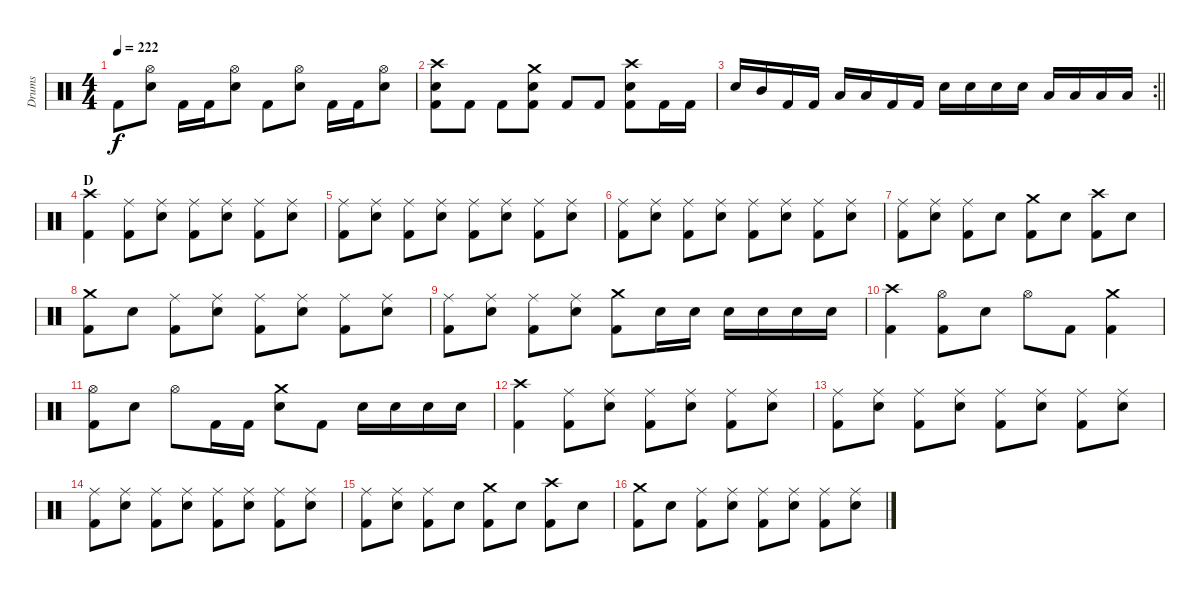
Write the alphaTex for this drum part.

\track ("Drums" "Drums") {instrument percussion}
\staff {score}
\articulation defaults
\ts (4 4)
\tempo 222
\clef neutral
\ks c "Kick (hit) 2".8{dy f}
("Hi-Hat (open)" "Electric Snare (hit)").8 "Kick (hit) 2".16 "Kick (hit) 2".16 ("Hi-Hat (open)" "Electric Snare (hit)").8 "Kick (hit) 2".8 ("Hi-Hat (open)" "Electric Snare (hit)").8 "Kick (hit) 2".16 "Kick (hit) 2".16 ("Hi-Hat (open)" "Electric Snare (hit)").8 |
("Crash high (hit)" "Electric Snare (hit)" "Kick (hit) 2").8 "Kick (hit) 2".8 "Kick (hit) 2".8 ("Crash medium (hit)" "Electric Snare (hit)" "Kick (hit) 2").8 "Kick (hit) 2".8 "Kick (hit) 2".8 ("Crash high (hit)" "Electric Snare (hit)" "Kick (hit) 2").8 "Kick (hit) 2".16 "Kick (hit) 2".16 |
\rc 2
\barLineRight lightlight "Electric Snare (hit)".16 "Mid Tom (hit)".16 "Kick (hit) 2".16 "Kick (hit) 2".16 "Low Tom (hit)".16 "Low Tom (hit)".16 "Kick (hit) 2".16 "Kick (hit) 2".16 "Electric Snare (hit)".16 "Electric Snare (hit)".16 "Electric Snare (hit)".16 "Electric Snare (hit)".16 "Low Tom (hit)".16 "Low Tom (hit)".16 "Low Tom (hit)".16 "Low Tom (hit)".16
|
\section ("" "D")
("Crash high (hit)" "Kick (hit) 2").4 ("Ride (middle)" "Kick (hit) 2").8 ("Ride (middle)" "Electric Snare (hit)").8 ("Ride (middle)" "Kick (hit) 2").8 ("Ride (middle)" "Electric Snare (hit)").8 ("Ride (middle)" "Kick (hit) 2").8 ("Ride (middle)" "Electric Snare (hit)").8 |
("Ride (middle)" "Kick (hit) 2").8 ("Ride (middle)" "Electric Snare (hit)").8 ("Ride (middle)" "Kick (hit) 2").8 ("Ride (middle)" "Electric Snare (hit)").8 ("Ride (middle)" "Kick (hit) 2").8 ("Ride (middle)" "Electric Snare (hit)").8 ("Ride (middle)" "Kick (hit) 2").8 ("Ride (middle)" "Electric Snare (hit)").8 |
("Ride (middle)" "Kick (hit) 2").8 ("Ride (middle)" "Electric Snare (hit)").8 ("Ride (middle)" "Kick (hit) 2").8 ("Ride (middle)" "Electric Snare (hit)").8 ("Ride (middle)" "Kick (hit) 2").8 ("Ride (middle)" "Electric Snare (hit)").8 ("Ride (middle)" "Kick (hit) 2").8 ("Ride (middle)" "Electric Snare (hit)").8 |
("Ride (middle)" "Kick (hit) 2").8 ("Ride (middle)" "Electric Snare (hit)").8 ("Ride (middle)" "Kick (hit) 2").8 "Electric Snare (hit)".8 ("Crash medium (hit)" "Kick (hit) 2").8 "Electric Snare (hit)".8 ("Crash high (hit)" "Kick (hit) 2").8 "Electric Snare (hit)".8 |
("Crash medium (hit)" "Kick (hit) 2").8 "Electric Snare (hit)".8 ("Ride (middle)" "Kick (hit) 2").8 ("Ride (middle)" "Electric Snare (hit)").8 ("Ride (middle)" "Kick (hit) 2").8 ("Ride (middle)" "Electric Snare (hit)").8 ("Ride (middle)" "Kick (hit) 2").8 ("Ride (middle)" "Electric Snare (hit)").8 |
("Ride (middle)" "Kick (hit) 2").8 ("Ride (middle)" "Electric Snare (hit)").8 ("Ride (middle)" "Kick (hit) 2").8 ("Ride (middle)" "Electric Snare (hit)").8 ("Crash medium (hit)" "Kick (hit) 2").8 "Electric Snare (hit)".16 "Electric Snare (hit)".16 "Electric Snare (hit)".16 "Electric Snare (hit)".16 "Electric Snare (hit)".16 "Electric Snare (hit)".16 |
("Crash high (hit)" "Kick (hit) 2").4 ("Hi-Hat (open)" "Kick (hit) 2").8 "Electric Snare (hit)".8 "Hi-Hat (open)".8 "Kick (hit) 2".8 ("Crash medium (hit)" "Kick (hit) 2").4 |
("Hi-Hat (open)" "Kick (hit) 2").8 "Electric Snare (hit)".8 "Hi-Hat (open)".8 "Kick (hit) 2".16 "Kick (hit) 2".16 ("Crash medium (hit)" "Electric Snare (hit)").8 "Kick (hit) 2".8 "Electric Snare (hit)".16 "Electric Snare (hit)".16 "Electric Snare (hit)".16 "Electric Snare (hit)".16 |
("Crash high (hit)" "Kick (hit) 2").4 ("Ride (middle)" "Kick (hit) 2").8 ("Ride (middle)" "Electric Snare (hit)").8 ("Ride (middle)" "Kick (hit) 2").8 ("Ride (middle)" "Electric Snare (hit)").8 ("Ride (middle)" "Kick (hit) 2").8 ("Ride (middle)" "Electric Snare (hit)").8 |
("Ride (middle)" "Kick (hit) 2").8 ("Ride (middle)" "Electric Snare (hit)").8 ("Ride (middle)" "Kick (hit) 2").8 ("Ride (middle)" "Electric Snare (hit)").8 ("Ride (middle)" "Kick (hit) 2").8 ("Ride (middle)" "Electric Snare (hit)").8 ("Ride (middle)" "Kick (hit) 2").8 ("Ride (middle)" "Electric Snare (hit)").8 |
("Ride (middle)" "Kick (hit) 2").8 ("Ride (middle)" "Electric Snare (hit)").8 ("Ride (middle)" "Kick (hit) 2").8 ("Ride (middle)" "Electric Snare (hit)").8 ("Ride (middle)" "Kick (hit) 2").8 ("Ride (middle)" "Electric Snare (hit)").8 ("Ride (middle)" "Kick (hit) 2").8 ("Ride (middle)" "Electric Snare (hit)").8 |
("Ride (middle)" "Kick (hit) 2").8 ("Ride (middle)" "Electric Snare (hit)").8 ("Ride (middle)" "Kick (hit) 2").8 "Electric Snare (hit)".8 ("Crash medium (hit)" "Kick (hit) 2").8 "Electric Snare (hit)".8 ("Crash high (hit)" "Kick (hit) 2").8 "Electric Snare (hit)".8 |
("Crash medium (hit)" "Kick (hit) 2").8 "Electric Snare (hit)".8 ("Ride (middle)" "Kick (hit) 2").8 ("Ride (middle)" "Electric Snare (hit)").8 ("Ride (middle)" "Kick (hit) 2").8 ("Ride (middle)" "Electric Snare (hit)").8 ("Ride (middle)" "Kick (hit) 2").8 ("Ride (middle)" "Electric Snare (hit)").8
